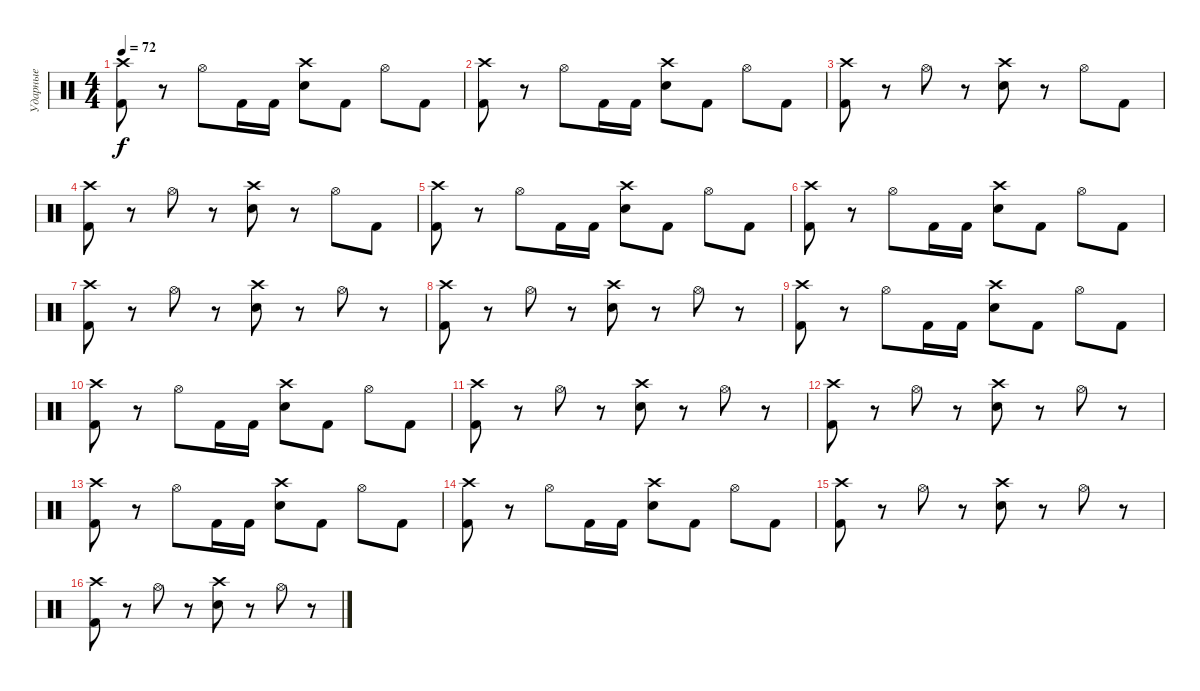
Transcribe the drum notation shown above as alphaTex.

\track ("Ударные" "Ударные") {instrument percussion}
\staff {score}
\articulation defaults
\ts (4 4)
\tempo 72
\clef neutral
\ks c
("Crash high (hit)" "Kick (hit) 2").8{dy f} r.8 "Hi-Hat (open)".8 "Kick (hit) 2".16 "Kick (hit) 2".16 ("Crash high (hit)" "Electric Snare (hit)").8 "Kick (hit) 2".8 "Hi-Hat (open)".8 "Kick (hit) 2".8 |
("Crash high (hit)" "Kick (hit) 2").8 r.8 "Hi-Hat (open)".8 "Kick (hit) 2".16 "Kick (hit) 2".16 ("Crash high (hit)" "Electric Snare (hit)").8 "Kick (hit) 2".8 "Hi-Hat (open)".8 "Kick (hit) 2".8 |
("Crash high (hit)" "Kick (hit) 2").8 r.8 "Hi-Hat (open)".8 r.8 ("Crash high (hit)" "Electric Snare (hit)").8 r.8 "Hi-Hat (open)".8 "Kick (hit) 2".8 |
("Crash high (hit)" "Kick (hit) 2").8 r.8 "Hi-Hat (open)".8 r.8 ("Crash high (hit)" "Electric Snare (hit)").8 r.8 "Hi-Hat (open)".8 "Kick (hit) 2".8 |
("Crash high (hit)" "Kick (hit) 2").8 r.8 "Hi-Hat (open)".8 "Kick (hit) 2".16 "Kick (hit) 2".16 ("Crash high (hit)" "Electric Snare (hit)").8 "Kick (hit) 2".8 "Hi-Hat (open)".8 "Kick (hit) 2".8 |
("Crash high (hit)" "Kick (hit) 2").8 r.8 "Hi-Hat (open)".8 "Kick (hit) 2".16 "Kick (hit) 2".16 ("Crash high (hit)" "Electric Snare (hit)").8 "Kick (hit) 2".8 "Hi-Hat (open)".8 "Kick (hit) 2".8 |
("Crash high (hit)" "Kick (hit) 2").8 r.8 "Hi-Hat (open)".8 r.8 ("Crash high (hit)" "Electric Snare (hit)").8 r.8 "Hi-Hat (open)".8 r.8 |
("Crash high (hit)" "Kick (hit) 2").8 r.8 "Hi-Hat (open)".8 r.8 ("Crash high (hit)" "Electric Snare (hit)").8 r.8 "Hi-Hat (open)".8 r.8 |
("Crash high (hit)" "Kick (hit) 2").8 r.8 "Hi-Hat (open)".8 "Kick (hit) 2".16 "Kick (hit) 2".16 ("Crash high (hit)" "Electric Snare (hit)").8 "Kick (hit) 2".8 "Hi-Hat (open)".8 "Kick (hit) 2".8 |
("Crash high (hit)" "Kick (hit) 2").8 r.8 "Hi-Hat (open)".8 "Kick (hit) 2".16 "Kick (hit) 2".16 ("Crash high (hit)" "Electric Snare (hit)").8 "Kick (hit) 2".8 "Hi-Hat (open)".8 "Kick (hit) 2".8 |
("Crash high (hit)" "Kick (hit) 2").8 r.8 "Hi-Hat (open)".8 r.8 ("Crash high (hit)" "Electric Snare (hit)").8 r.8 "Hi-Hat (open)".8 r.8 |
("Crash high (hit)" "Kick (hit) 2").8 r.8 "Hi-Hat (open)".8 r.8 ("Crash high (hit)" "Electric Snare (hit)").8 r.8 "Hi-Hat (open)".8 r.8 |
("Crash high (hit)" "Kick (hit) 2").8 r.8 "Hi-Hat (open)".8 "Kick (hit) 2".16 "Kick (hit) 2".16 ("Crash high (hit)" "Electric Snare (hit)").8 "Kick (hit) 2".8 "Hi-Hat (open)".8 "Kick (hit) 2".8 |
("Crash high (hit)" "Kick (hit) 2").8{volume 0} r.8 "Hi-Hat (open)".8 "Kick (hit) 2".16 "Kick (hit) 2".16 ("Crash high (hit)" "Electric Snare (hit)").8 "Kick (hit) 2".8 "Hi-Hat (open)".8 "Kick (hit) 2".8 |
("Crash high (hit)" "Kick (hit) 2").8 r.8 "Hi-Hat (open)".8 r.8 ("Crash high (hit)" "Electric Snare (hit)").8 r.8 "Hi-Hat (open)".8 r.8 |
("Crash high (hit)" "Kick (hit) 2").8 r.8 "Hi-Hat (open)".8 r.8 ("Crash high (hit)" "Electric Snare (hit)").8 r.8 "Hi-Hat (open)".8 r.8
